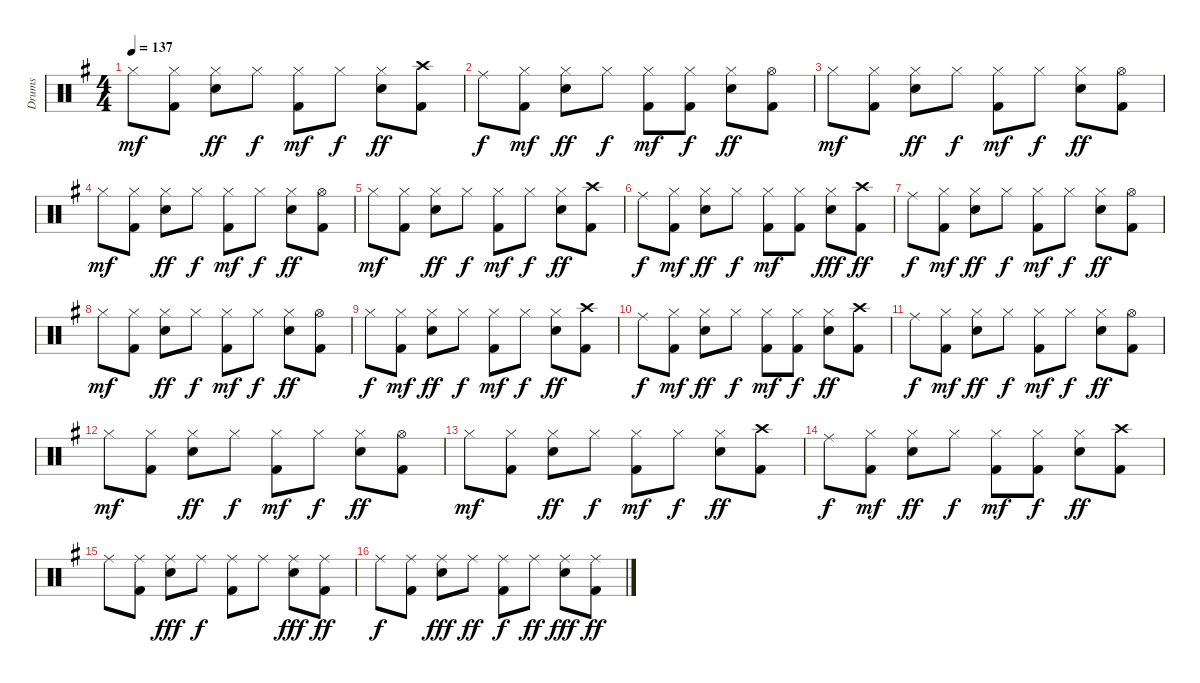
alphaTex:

\track ("Drums" "Drums") {instrument percussion}
\staff {score}
\articulation defaults
\ts (4 4)
\tempo 137
\clef neutral
\ks g "Hi-Hat (closed)".8{dy mf}
("Hi-Hat (closed)" "Kick (hit) 2").8 ("Hi-Hat (closed)" "Snare (hit) 2").8{dy ff} "Hi-Hat (closed)".8{dy f} ("Hi-Hat (closed)" "Kick (hit) 2").8{dy mf} "Hi-Hat (closed)".8{dy f} ("Hi-Hat (closed)" "Snare (hit) 2").8{dy ff} ("Crash high (hit)" "Kick (hit) 2").8 |
"Ride (middle)".8{dy f} ("Hi-Hat (closed)" "Kick (hit) 2").8{dy mf} ("Hi-Hat (closed)" "Snare (hit) 2").8{dy ff} "Hi-Hat (closed)".8{dy f} ("Hi-Hat (closed)" "Kick (hit) 2").8{dy mf} ("Hi-Hat (closed)" "Kick (hit) 2").8{dy f} ("Hi-Hat (closed)" "Snare (hit) 2").8{dy ff} ("Hi-Hat (open)" "Kick (hit) 2").8 |
"Hi-Hat (closed)".8{dy mf} ("Hi-Hat (closed)" "Kick (hit) 2").8 ("Hi-Hat (closed)" "Snare (hit) 2").8{dy ff} "Hi-Hat (closed)".8{dy f} ("Hi-Hat (closed)" "Kick (hit) 2").8{dy mf} "Hi-Hat (closed)".8{dy f} ("Hi-Hat (closed)" "Snare (hit) 2").8{dy ff} ("Hi-Hat (open)" "Kick (hit) 2").8 |
"Hi-Hat (closed)".8{dy mf} ("Hi-Hat (closed)" "Kick (hit) 2").8 ("Hi-Hat (closed)" "Snare (hit) 2").8{dy ff} "Hi-Hat (closed)".8{dy f} ("Hi-Hat (closed)" "Kick (hit) 2").8{dy mf} "Hi-Hat (closed)".8{dy f} ("Hi-Hat (closed)" "Snare (hit) 2").8{dy ff} ("Hi-Hat (open)" "Kick (hit) 2").8 |
"Hi-Hat (closed)".8{dy mf} ("Hi-Hat (closed)" "Kick (hit) 2").8 ("Hi-Hat (closed)" "Snare (hit) 2").8{dy ff} "Hi-Hat (closed)".8{dy f} ("Hi-Hat (closed)" "Kick (hit) 2").8{dy mf} "Hi-Hat (closed)".8{dy f} ("Hi-Hat (closed)" "Snare (hit) 2").8{dy ff} ("Crash high (hit)" "Kick (hit) 2").8 |
"Ride (middle)".8{dy f} ("Hi-Hat (closed)" "Kick (hit) 2").8{dy mf} ("Hi-Hat (closed)" "Snare (hit) 2").8{dy ff} "Hi-Hat (closed)".8{dy f} ("Hi-Hat (closed)" "Kick (hit) 2").8{dy mf} ("Hi-Hat (closed)" "Kick (hit) 2").8 ("Hi-Hat (closed)" "Snare (hit) 2").8{dy fff} ("Crash high (hit)" "Kick (hit) 2").8{dy ff} |
"Ride (middle)".8{dy f} ("Hi-Hat (closed)" "Kick (hit) 2").8{dy mf} ("Hi-Hat (closed)" "Snare (hit) 2").8{dy ff} "Hi-Hat (closed)".8{dy f} ("Hi-Hat (closed)" "Kick (hit) 2").8{dy mf} "Hi-Hat (closed)".8{dy f} ("Hi-Hat (closed)" "Snare (hit) 2").8{dy ff} ("Hi-Hat (open)" "Kick (hit) 2").8 |
"Hi-Hat (closed)".8{dy mf} ("Hi-Hat (closed)" "Kick (hit) 2").8 ("Hi-Hat (closed)" "Snare (hit) 2").8{dy ff} "Hi-Hat (closed)".8{dy f} ("Hi-Hat (closed)" "Kick (hit) 2").8{dy mf} "Hi-Hat (closed)".8{dy f} ("Hi-Hat (closed)" "Snare (hit) 2").8{dy ff} ("Hi-Hat (open)" "Kick (hit) 2").8 |
"Hi-Hat (closed)".8{dy f} ("Hi-Hat (closed)" "Kick (hit) 2").8{dy mf} ("Hi-Hat (closed)" "Snare (hit) 2").8{dy ff} "Hi-Hat (closed)".8{dy f} ("Hi-Hat (closed)" "Kick (hit) 2").8{dy mf} "Hi-Hat (closed)".8{dy f} ("Hi-Hat (closed)" "Snare (hit) 2").8{dy ff} ("Crash high (hit)" "Kick (hit) 2").8 |
"Ride (middle)".8{dy f} ("Hi-Hat (closed)" "Kick (hit) 2").8{dy mf} ("Hi-Hat (closed)" "Snare (hit) 2").8{dy ff} "Hi-Hat (closed)".8{dy f} ("Hi-Hat (closed)" "Kick (hit) 2").8{dy mf} ("Hi-Hat (closed)" "Kick (hit) 2").8{dy f} ("Hi-Hat (closed)" "Snare (hit) 2").8{dy ff} ("Crash high (hit)" "Kick (hit) 2").8 |
"Ride (middle)".8{dy f} ("Hi-Hat (closed)" "Kick (hit) 2").8{dy mf} ("Hi-Hat (closed)" "Snare (hit) 2").8{dy ff} "Hi-Hat (closed)".8{dy f} ("Hi-Hat (closed)" "Kick (hit) 2").8{dy mf} "Hi-Hat (closed)".8{dy f} ("Hi-Hat (closed)" "Snare (hit) 2").8{dy ff} ("Hi-Hat (open)" "Kick (hit) 2").8 |
"Hi-Hat (closed)".8{dy mf} ("Hi-Hat (closed)" "Kick (hit) 2").8 ("Hi-Hat (closed)" "Snare (hit) 2").8{dy ff} "Hi-Hat (closed)".8{dy f} ("Hi-Hat (closed)" "Kick (hit) 2").8{dy mf} "Hi-Hat (closed)".8{dy f} ("Hi-Hat (closed)" "Snare (hit) 2").8{dy ff} ("Hi-Hat (open)" "Kick (hit) 2").8 |
"Hi-Hat (closed)".8{dy mf} ("Hi-Hat (closed)" "Kick (hit) 2").8 ("Hi-Hat (closed)" "Snare (hit) 2").8{dy ff} "Hi-Hat (closed)".8{dy f} ("Hi-Hat (closed)" "Kick (hit) 2").8{dy mf} "Hi-Hat (closed)".8{dy f} ("Hi-Hat (closed)" "Snare (hit) 2").8{dy ff} ("Crash high (hit)" "Kick (hit) 2").8 |
"Ride (middle)".8{dy f} ("Hi-Hat (closed)" "Kick (hit) 2").8{dy mf} ("Hi-Hat (closed)" "Snare (hit) 2").8{dy ff} "Hi-Hat (closed)".8{dy f} ("Hi-Hat (closed)" "Kick (hit) 2").8{dy mf} ("Hi-Hat (closed)" "Kick (hit) 2").8{dy f} ("Hi-Hat (closed)" "Snare (hit) 2").8{dy ff} ("Crash high (hit)" "Kick (hit) 2").8 |
"Ride (middle)".8 ("Ride (middle)" "Kick (hit) 2").8 ("Ride (middle)" "Snare (hit) 2").8{dy fff} "Ride (middle)".8{dy f} ("Ride (middle)" "Kick (hit) 2").8 "Ride (middle)".8 ("Ride (middle)" "Snare (hit) 2").8{dy fff} ("Ride (middle)" "Kick (hit) 2").8{dy ff} |
"Ride (middle)".8{dy f} ("Ride (middle)" "Kick (hit) 2").8 ("Ride (middle)" "Snare (hit) 2").8{dy fff} "Ride (middle)".8{dy ff} ("Ride (middle)" "Kick (hit) 2").8{dy f} "Ride (middle)".8{dy ff} ("Ride (middle)" "Snare (hit) 2").8{dy fff} ("Ride (middle)" "Kick (hit) 2").8{dy ff}
